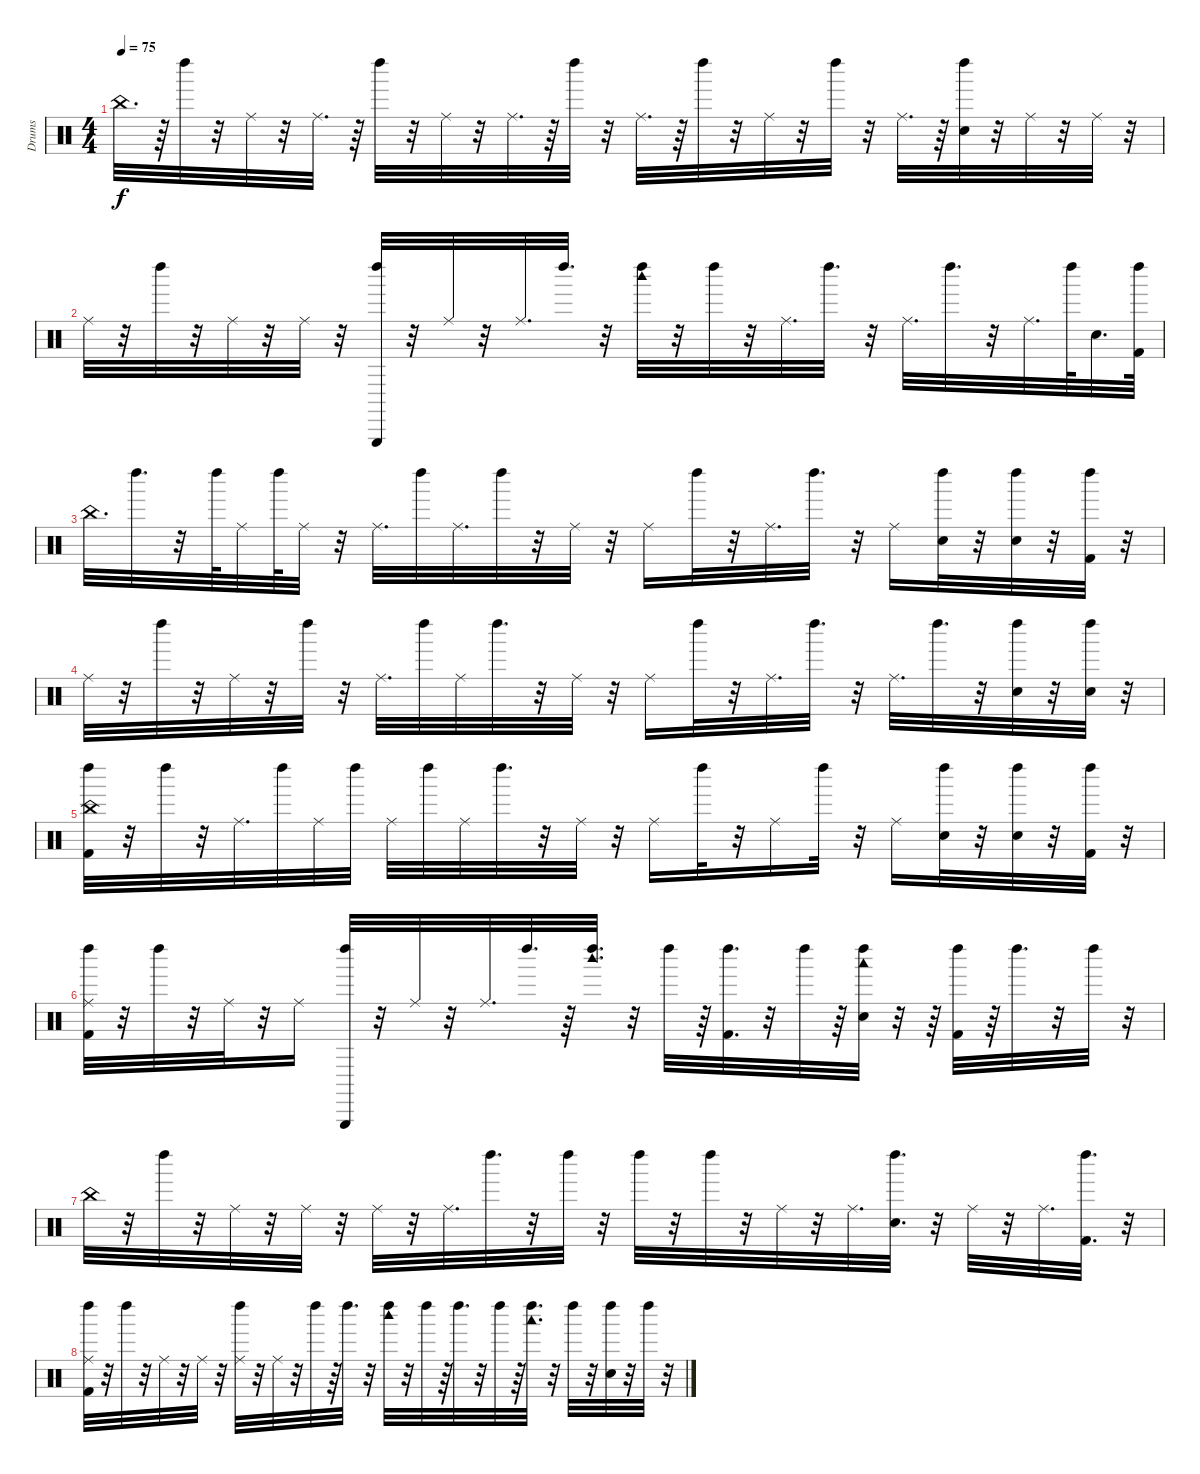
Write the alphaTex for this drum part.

\track ("Drums" "Drums") {instrument percussion}
\staff {score}
\articulation defaults
\ts (4 4)
\tempo 75
\clef neutral
\ks c "China (hit)".32{d dy f}
r.64 "Left Maraca (hit)".32 r.32 "Ride (middle)".32 r.32 "Ride (middle)".32{d} r.64 "Left Maraca (hit)".32 r.32 "Ride (middle)".32 r.32 "Ride (middle)".32{d} r.64 "Left Maraca (hit)".32 r.32 "Ride (middle)".32{d} r.64 "Left Maraca (hit)".32 r.32 "Ride (middle)".32 r.32 "Left Maraca (hit)".32 r.32 "Ride (middle)".32{d} r.64 ("Snare (hit) 2" "Left Maraca (hit)").32 r.32 "Ride (middle)".32 r.32 "Ride (middle)".32 r.32 |
"Ride (middle)".32 r.32 "Left Maraca (hit)".32 r.32 "Ride (middle)".32 r.32 "Ride (middle)".32 r.32 ("Triangle (hit)" "Left Maraca (hit)").32 r.32 "Ride (middle)".32 r.32 "Ride (middle)".32{d} "Left Maraca (hit)".32{d} r.32 ("Woodblock high (hit)" "Left Maraca (hit)").32 r.32 "Left Maraca (hit)".32 r.32 "Ride (middle)".32{d} "Left Maraca (hit)".32{d} r.32 "Ride (middle)".32{d} "Left Maraca (hit)".32{d} r.32 "Ride (middle)".32{d} "Left Maraca (hit)".64 "Snare (hit) 2".32{d} ("Kick (hit) 2" "Left Maraca (hit)").64 |
"China (hit)".32{d} "Left Maraca (hit)".32{d} r.32 "Left Maraca (hit)".64 "Ride (middle)".32 "Left Maraca (hit)".64 "Ride (middle)".32 r.32 "Ride (middle)".32{d} "Left Maraca (hit)".32 "Ride (middle)".32{d} "Left Maraca (hit)".32 r.32 "Ride (middle)".32 r.32 "Ride (middle)".16 "Left Maraca (hit)".32 r.32 "Ride (middle)".32{d} "Left Maraca (hit)".32{d} r.32 "Ride (middle)".16 ("Snare (hit) 2" "Left Maraca (hit)").32 r.32 ("Snare (hit) 2" "Left Maraca (hit)").32 r.32 ("Kick (hit) 2" "Left Maraca (hit)").32 r.32 |
"Ride (middle)".32 r.32 "Left Maraca (hit)".32 r.32 "Ride (middle)".32 r.32 "Left Maraca (hit)".32 r.32 "Ride (middle)".32{d} "Left Maraca (hit)".32 "Ride (middle)".32 "Left Maraca (hit)".32{d} r.32 "Ride (middle)".32 r.32 "Ride (middle)".16 "Left Maraca (hit)".32 r.32 "Ride (middle)".32{d} "Left Maraca (hit)".32{d} r.32 "Ride (middle)".32{d} "Left Maraca (hit)".32{d} r.32 ("Snare (hit) 2" "Left Maraca (hit)").32 r.32 ("Snare (hit) 2" "Left Maraca (hit)").32 r.32 |
("China (hit)" "Kick (hit) 2" "Left Maraca (hit)").32 r.32 "Left Maraca (hit)".32 r.32 "Ride (middle)".32{d} "Left Maraca (hit)".32 "Ride (middle)".32 "Left Maraca (hit)".32 "Ride (middle)".32 "Left Maraca (hit)".32 "Ride (middle)".32 "Left Maraca (hit)".32{d} r.32 "Ride (middle)".32 r.32 "Ride (middle)".16 "Left Maraca (hit)".32 r.32 "Ride (middle)".16 "Left Maraca (hit)".32 r.32 "Ride (middle)".16 ("Snare (hit) 2" "Left Maraca (hit)").32 r.32 ("Snare (hit) 2" "Left Maraca (hit)").32 r.32 ("Kick (hit) 2" "Left Maraca (hit)").32 r.32 |
("Ride (middle)" "Kick (hit) 2" "Left Maraca (hit)").32 r.32 "Left Maraca (hit)".32 r.32 "Ride (middle)".32 r.32 "Ride (middle)".16 ("Triangle (hit)" "Left Maraca (hit)").32 r.32 "Ride (middle)".32 r.32 "Ride (middle)".32{d} "Left Maraca (hit)".32{d} r.64 ("Woodblock high (hit)" "Left Maraca (hit)").32{d} r.32 "Left Maraca (hit)".32 r.64 ("Left Maraca (hit)" "Kick (hit) 2").32{d} r.32 "Left Maraca (hit)".32 r.64 ("Woodblock low (hit)" "Left Maraca (hit)" "Snare (hit) 2").32 r.32 r.64 ("Left Maraca (hit)" "Kick (hit) 2").32 r.64 "Left Maraca (hit)".32{d} r.32 "Left Maraca (hit)".32 r.32 |
"China (hit)".32 r.32 "Left Maraca (hit)".32 r.32 "Ride (middle)".32 r.32 "Ride (middle)".32 r.32 "Ride (middle)".32 r.32 "Ride (middle)".32{d} "Left Maraca (hit)".32{d} r.32 "Left Maraca (hit)".32 r.32 "Left Maraca (hit)".32 r.32 "Left Maraca (hit)".32 r.32 "Ride (middle)".32 r.32 "Ride (middle)".32{d} ("Snare (hit) 2" "Left Maraca (hit)").32{d} r.32 "Ride (middle)".32 r.32 "Ride (middle)".32{d} ("Kick (hit) 2" "Left Maraca (hit)").32{d} r.32 |
("Ride (middle)" "Kick (hit) 2" "Left Maraca (hit)").32 r.32 "Left Maraca (hit)".32 r.32 "Ride (middle)".32 r.32 "Ride (middle)".32 r.32 ("Ride (middle)" "Left Maraca (hit)").32 r.32 "Ride (middle)".32 r.32 "Left Maraca (hit)".32 r.64 "Left Maraca (hit)".32{d} r.32 ("Woodblock high (hit)" "Left Maraca (hit)").32 r.32 "Left Maraca (hit)".32 r.64 "Left Maraca (hit)".32{d} r.32 "Left Maraca (hit)".32 r.64 ("Woodblock low (hit)" "Left Maraca (hit)").32{d} r.32 "Left Maraca (hit)".32 r.32 ("Hand Clap (hit)" "Left Maraca (hit)").32 r.32 "Left Maraca (hit)".32 r.32
